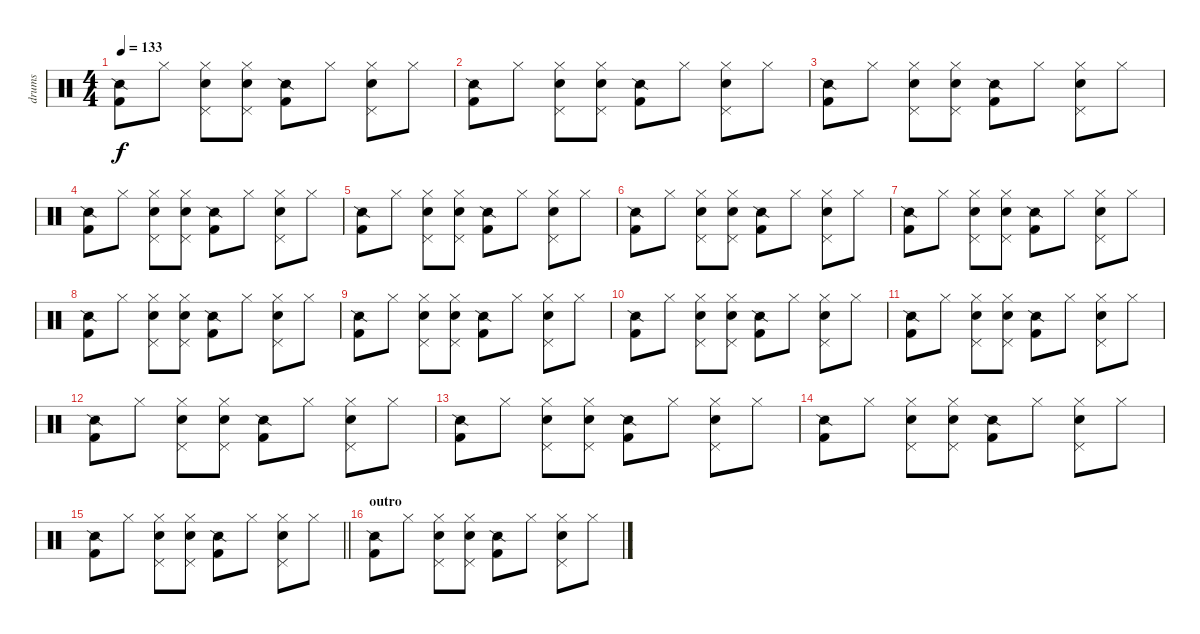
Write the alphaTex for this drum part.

\track ("drums" "drums") {instrument percussion}
\staff {score}
\articulation defaults
\ts (4 4)
\tempo 133
\clef neutral
\ks c
("Snare (side stick) 2" "Kick (hit) 2").8{dy f} "Hi-Hat (closed)".8 ("Hi-Hat (closed)" "Electric Snare (hit)" "Pedal Hi-Hat (hit)").8 ("Hi-Hat (closed)" "Electric Snare (hit)" "Pedal Hi-Hat (hit)").8 ("Snare (side stick) 2" "Kick (hit) 2").8 "Hi-Hat (closed)".8 ("Hi-Hat (closed)" "Electric Snare (hit)" "Pedal Hi-Hat (hit)").8 "Hi-Hat (closed)".8 |
("Snare (side stick) 2" "Kick (hit) 2").8 "Hi-Hat (closed)".8 ("Hi-Hat (closed)" "Electric Snare (hit)" "Pedal Hi-Hat (hit)").8 ("Hi-Hat (closed)" "Electric Snare (hit)" "Pedal Hi-Hat (hit)").8 ("Snare (side stick) 2" "Kick (hit) 2").8 "Hi-Hat (closed)".8 ("Hi-Hat (closed)" "Electric Snare (hit)" "Pedal Hi-Hat (hit)").8 "Hi-Hat (closed)".8 |
("Snare (side stick) 2" "Kick (hit) 2").8 "Hi-Hat (closed)".8 ("Hi-Hat (closed)" "Electric Snare (hit)" "Pedal Hi-Hat (hit)").8 ("Hi-Hat (closed)" "Electric Snare (hit)" "Pedal Hi-Hat (hit)").8 ("Snare (side stick) 2" "Kick (hit) 2").8 "Hi-Hat (closed)".8 ("Hi-Hat (closed)" "Electric Snare (hit)" "Pedal Hi-Hat (hit)").8 "Hi-Hat (closed)".8 |
("Snare (side stick) 2" "Kick (hit) 2").8 "Hi-Hat (closed)".8 ("Hi-Hat (closed)" "Electric Snare (hit)" "Pedal Hi-Hat (hit)").8 ("Hi-Hat (closed)" "Electric Snare (hit)" "Pedal Hi-Hat (hit)").8 ("Snare (side stick) 2" "Kick (hit) 2").8 "Hi-Hat (closed)".8 ("Hi-Hat (closed)" "Electric Snare (hit)" "Pedal Hi-Hat (hit)").8 "Hi-Hat (closed)".8 |
("Snare (side stick) 2" "Kick (hit) 2").8 "Hi-Hat (closed)".8 ("Hi-Hat (closed)" "Electric Snare (hit)" "Pedal Hi-Hat (hit)").8 ("Hi-Hat (closed)" "Electric Snare (hit)" "Pedal Hi-Hat (hit)").8 ("Snare (side stick) 2" "Kick (hit) 2").8 "Hi-Hat (closed)".8 ("Hi-Hat (closed)" "Electric Snare (hit)" "Pedal Hi-Hat (hit)").8 "Hi-Hat (closed)".8 |
("Snare (side stick) 2" "Kick (hit) 2").8 "Hi-Hat (closed)".8 ("Hi-Hat (closed)" "Electric Snare (hit)" "Pedal Hi-Hat (hit)").8 ("Hi-Hat (closed)" "Electric Snare (hit)" "Pedal Hi-Hat (hit)").8 ("Snare (side stick) 2" "Kick (hit) 2").8 "Hi-Hat (closed)".8 ("Hi-Hat (closed)" "Electric Snare (hit)" "Pedal Hi-Hat (hit)").8 "Hi-Hat (closed)".8 |
("Snare (side stick) 2" "Kick (hit) 2").8 "Hi-Hat (closed)".8 ("Hi-Hat (closed)" "Electric Snare (hit)" "Pedal Hi-Hat (hit)").8 ("Hi-Hat (closed)" "Electric Snare (hit)" "Pedal Hi-Hat (hit)").8 ("Snare (side stick) 2" "Kick (hit) 2").8 "Hi-Hat (closed)".8 ("Hi-Hat (closed)" "Electric Snare (hit)" "Pedal Hi-Hat (hit)").8 "Hi-Hat (closed)".8 |
("Snare (side stick) 2" "Kick (hit) 2").8 "Hi-Hat (closed)".8 ("Hi-Hat (closed)" "Electric Snare (hit)" "Pedal Hi-Hat (hit)").8 ("Hi-Hat (closed)" "Electric Snare (hit)" "Pedal Hi-Hat (hit)").8 ("Snare (side stick) 2" "Kick (hit) 2").8 "Hi-Hat (closed)".8 ("Hi-Hat (closed)" "Electric Snare (hit)" "Pedal Hi-Hat (hit)").8 "Hi-Hat (closed)".8 |
("Snare (side stick) 2" "Kick (hit) 2").8 "Hi-Hat (closed)".8 ("Hi-Hat (closed)" "Electric Snare (hit)" "Pedal Hi-Hat (hit)").8 ("Hi-Hat (closed)" "Electric Snare (hit)" "Pedal Hi-Hat (hit)").8 ("Snare (side stick) 2" "Kick (hit) 2").8 "Hi-Hat (closed)".8 ("Hi-Hat (closed)" "Electric Snare (hit)" "Pedal Hi-Hat (hit)").8 "Hi-Hat (closed)".8 |
("Snare (side stick) 2" "Kick (hit) 2").8 "Hi-Hat (closed)".8 ("Hi-Hat (closed)" "Electric Snare (hit)" "Pedal Hi-Hat (hit)").8 ("Hi-Hat (closed)" "Electric Snare (hit)" "Pedal Hi-Hat (hit)").8 ("Snare (side stick) 2" "Kick (hit) 2").8 "Hi-Hat (closed)".8 ("Hi-Hat (closed)" "Electric Snare (hit)" "Pedal Hi-Hat (hit)").8 "Hi-Hat (closed)".8 |
("Snare (side stick) 2" "Kick (hit) 2").8 "Hi-Hat (closed)".8 ("Hi-Hat (closed)" "Electric Snare (hit)" "Pedal Hi-Hat (hit)").8 ("Hi-Hat (closed)" "Electric Snare (hit)" "Pedal Hi-Hat (hit)").8 ("Snare (side stick) 2" "Kick (hit) 2").8 "Hi-Hat (closed)".8 ("Hi-Hat (closed)" "Electric Snare (hit)" "Pedal Hi-Hat (hit)").8 "Hi-Hat (closed)".8 |
("Snare (side stick) 2" "Kick (hit) 2").8 "Hi-Hat (closed)".8 ("Hi-Hat (closed)" "Electric Snare (hit)" "Pedal Hi-Hat (hit)").8 ("Hi-Hat (closed)" "Electric Snare (hit)" "Pedal Hi-Hat (hit)").8 ("Snare (side stick) 2" "Kick (hit) 2").8 "Hi-Hat (closed)".8 ("Hi-Hat (closed)" "Electric Snare (hit)" "Pedal Hi-Hat (hit)").8 "Hi-Hat (closed)".8 |
("Snare (side stick) 2" "Kick (hit) 2").8 "Hi-Hat (closed)".8 ("Hi-Hat (closed)" "Electric Snare (hit)" "Pedal Hi-Hat (hit)").8 ("Hi-Hat (closed)" "Electric Snare (hit)" "Pedal Hi-Hat (hit)").8 ("Snare (side stick) 2" "Kick (hit) 2").8 "Hi-Hat (closed)".8 ("Hi-Hat (closed)" "Electric Snare (hit)" "Pedal Hi-Hat (hit)").8 "Hi-Hat (closed)".8 |
("Snare (side stick) 2" "Kick (hit) 2").8 "Hi-Hat (closed)".8 ("Hi-Hat (closed)" "Electric Snare (hit)" "Pedal Hi-Hat (hit)").8 ("Hi-Hat (closed)" "Electric Snare (hit)" "Pedal Hi-Hat (hit)").8 ("Snare (side stick) 2" "Kick (hit) 2").8 "Hi-Hat (closed)".8 ("Hi-Hat (closed)" "Electric Snare (hit)" "Pedal Hi-Hat (hit)").8 "Hi-Hat (closed)".8 |
\barLineRight lightlight
("Snare (side stick) 2" "Kick (hit) 2").8 "Hi-Hat (closed)".8 ("Hi-Hat (closed)" "Electric Snare (hit)" "Pedal Hi-Hat (hit)").8 ("Hi-Hat (closed)" "Electric Snare (hit)" "Pedal Hi-Hat (hit)").8 ("Snare (side stick) 2" "Kick (hit) 2").8 "Hi-Hat (closed)".8 ("Hi-Hat (closed)" "Electric Snare (hit)" "Pedal Hi-Hat (hit)").8 "Hi-Hat (closed)".8 |
\section ("" "outro")
("Snare (side stick) 2" "Kick (hit) 2").8 "Hi-Hat (closed)".8 ("Hi-Hat (closed)" "Electric Snare (hit)" "Pedal Hi-Hat (hit)").8 ("Hi-Hat (closed)" "Electric Snare (hit)" "Pedal Hi-Hat (hit)").8 ("Snare (side stick) 2" "Kick (hit) 2").8 "Hi-Hat (closed)".8 ("Hi-Hat (closed)" "Electric Snare (hit)" "Pedal Hi-Hat (hit)").8 "Hi-Hat (closed)".8
